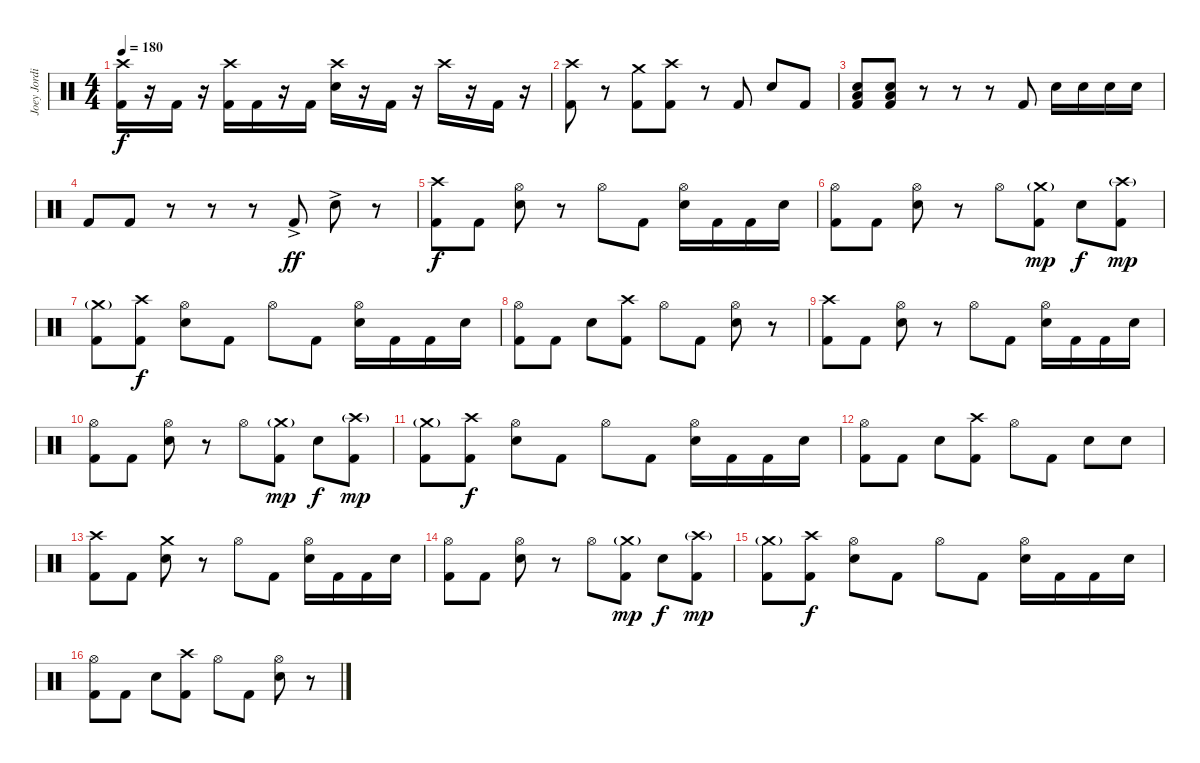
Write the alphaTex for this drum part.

\track ("Joey Jordison" "Joey Jordi") {instrument percussion}
\staff {score}
\articulation defaults
\ts (4 4)
\tempo 180
\clef neutral
\ks c
("Crash high (hit)" "Kick (hit) 2").16{dy f} r.16 "Kick (hit) 2".16 r.16 ("Crash high (hit)" "Kick (hit) 2").16 "Kick (hit) 2".16 r.16 "Kick (hit) 2".16 ("Crash high (hit)" "Electric Snare (hit)").16 r.16 "Kick (hit) 2".16 r.16 "Crash high (hit)".16 r.16 "Kick (hit) 2".16 r.16 |
("Crash high (hit)" "Kick (hit) 2").8 r.8 ("Crash medium (hit)" "Kick (hit) 2").8 ("Crash high (hit)" "Kick (hit) 2").8 r.8 "Kick (hit) 2".8 "Electric Snare (hit)".8 "Kick (hit) 2".8 |
("Low Tom (hit)" "Electric Snare (hit)" "Kick (hit) 2").8 ("Low Tom (hit)" "Electric Snare (hit)" "Kick (hit) 2").8 r.8 r.8 r.8 "Kick (hit) 2".8 "Electric Snare (hit)".16 "Electric Snare (hit)".16 "Electric Snare (hit)".16 "Electric Snare (hit)".16 |
"Kick (hit) 2".8 "Kick (hit) 2".8 r.8 r.8 r.8 "Kick (hit) 2"{ac}.8{dy ff} "Electric Snare (hit)"{ac}.8 r.8 |
("Crash high (hit)" "Kick (hit) 2").8{dy f} "Kick (hit) 2".8 ("Hi-Hat (open)" "Electric Snare (hit)").8 r.8 "Hi-Hat (open)".8 "Kick (hit) 2".8 ("Hi-Hat (open)" "Electric Snare (hit)").16 "Kick (hit) 2".16 "Kick (hit) 2".16 "Electric Snare (hit)".16 |
("Hi-Hat (open)" "Kick (hit) 2").8 "Kick (hit) 2".8 ("Hi-Hat (open)" "Electric Snare (hit)").8 r.8 "Hi-Hat (open)".8 ("Crash medium (hit)"{g} "Kick (hit) 2").8{dy mp} "Electric Snare (hit)".8{dy f} ("Crash high (hit)"{g} "Kick (hit) 2").8{dy mp} |
("Crash medium (hit)"{g} "Kick (hit) 2").8 ("Crash high (hit)" "Kick (hit) 2").8{dy f} ("Hi-Hat (open)" "Electric Snare (hit)").8 "Kick (hit) 2".8 "Hi-Hat (open)".8 "Kick (hit) 2".8 ("Hi-Hat (open)" "Electric Snare (hit)").16 "Kick (hit) 2".16 "Kick (hit) 2".16 "Electric Snare (hit)".16 |
("Hi-Hat (open)" "Kick (hit) 2").8 "Kick (hit) 2".8 "Electric Snare (hit)".8 ("Crash high (hit)" "Kick (hit) 2").8 "Hi-Hat (open)".8 "Kick (hit) 2".8 ("Hi-Hat (open)" "Electric Snare (hit)").8 r.8 |
("Crash high (hit)" "Kick (hit) 2").8 "Kick (hit) 2".8 ("Hi-Hat (open)" "Electric Snare (hit)").8 r.8 "Hi-Hat (open)".8 "Kick (hit) 2".8 ("Hi-Hat (open)" "Electric Snare (hit)").16 "Kick (hit) 2".16 "Kick (hit) 2".16 "Electric Snare (hit)".16 |
("Hi-Hat (open)" "Kick (hit) 2").8 "Kick (hit) 2".8 ("Hi-Hat (open)" "Electric Snare (hit)").8 r.8 "Hi-Hat (open)".8 ("Crash medium (hit)"{g} "Kick (hit) 2").8{dy mp} "Electric Snare (hit)".8{dy f} ("Crash high (hit)"{g} "Kick (hit) 2").8{dy mp} |
("Crash medium (hit)"{g} "Kick (hit) 2").8 ("Crash high (hit)" "Kick (hit) 2").8{dy f} ("Hi-Hat (open)" "Electric Snare (hit)").8 "Kick (hit) 2".8 "Hi-Hat (open)".8 "Kick (hit) 2".8 ("Hi-Hat (open)" "Electric Snare (hit)").16 "Kick (hit) 2".16 "Kick (hit) 2".16 "Electric Snare (hit)".16 |
("Hi-Hat (open)" "Kick (hit) 2").8 "Kick (hit) 2".8 "Electric Snare (hit)".8 ("Crash high (hit)" "Kick (hit) 2").8 "Hi-Hat (open)".8 "Kick (hit) 2".8 "Electric Snare (hit)".8 "Electric Snare (hit)".8 |
("Crash high (hit)" "Kick (hit) 2").8 "Kick (hit) 2".8 ("Crash medium (hit)" "Electric Snare (hit)").8 r.8 "Hi-Hat (open)".8 "Kick (hit) 2".8 ("Hi-Hat (open)" "Electric Snare (hit)").16 "Kick (hit) 2".16 "Kick (hit) 2".16 "Electric Snare (hit)".16 |
("Hi-Hat (open)" "Kick (hit) 2").8 "Kick (hit) 2".8 ("Hi-Hat (open)" "Electric Snare (hit)").8 r.8 "Hi-Hat (open)".8 ("Crash medium (hit)"{g} "Kick (hit) 2").8{dy mp} "Electric Snare (hit)".8{dy f} ("Crash high (hit)"{g} "Kick (hit) 2").8{dy mp} |
("Crash medium (hit)"{g} "Kick (hit) 2").8 ("Crash high (hit)" "Kick (hit) 2").8{dy f} ("Hi-Hat (open)" "Electric Snare (hit)").8 "Kick (hit) 2".8 "Hi-Hat (open)".8 "Kick (hit) 2".8 ("Hi-Hat (open)" "Electric Snare (hit)").16 "Kick (hit) 2".16 "Kick (hit) 2".16 "Electric Snare (hit)".16 |
("Hi-Hat (open)" "Kick (hit) 2").8 "Kick (hit) 2".8 "Electric Snare (hit)".8 ("Crash high (hit)" "Kick (hit) 2").8 "Hi-Hat (open)".8 "Kick (hit) 2".8 ("Hi-Hat (open)" "Electric Snare (hit)").8 r.8
